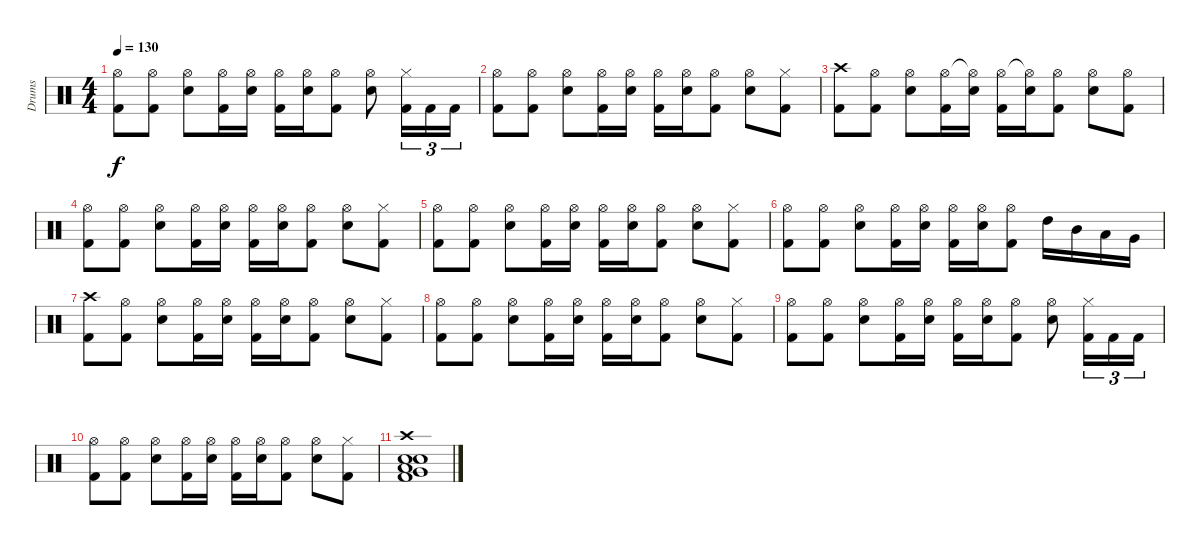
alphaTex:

\track ("Drums" "Drums") {instrument percussion}
\staff {score}
\articulation defaults
\ts (4 4)
\tempo 130
\clef neutral
\ks c
("Hi-Hat (open)" "Kick (hit) 2").8{dy f} ("Hi-Hat (open)" "Kick (hit) 2").8 ("Hi-Hat (open)" "Electric Snare (hit)").8 ("Hi-Hat (open)" "Kick (hit) 2").16 ("Hi-Hat (open)" "Electric Snare (hit)").16 ("Hi-Hat (open)" "Kick (hit) 2").16 ("Hi-Hat (open)" "Electric Snare (hit)").16 ("Hi-Hat (open)" "Kick (hit) 2").8 ("Hi-Hat (open)" "Electric Snare (hit)").8 ("Hi-Hat (closed)" "Kick (hit) 2").16{tu (3 2)} "Kick (hit) 2".16{tu (3 2)} "Kick (hit) 2".16{tu (3 2)} |
("Hi-Hat (open)" "Kick (hit) 2").8 ("Hi-Hat (open)" "Kick (hit) 2").8 ("Hi-Hat (open)" "Electric Snare (hit)").8 ("Hi-Hat (open)" "Kick (hit) 2").16 ("Hi-Hat (open)" "Electric Snare (hit)").16 ("Hi-Hat (open)" "Kick (hit) 2").16 ("Hi-Hat (open)" "Electric Snare (hit)").16 ("Hi-Hat (open)" "Kick (hit) 2").8 ("Hi-Hat (open)" "Electric Snare (hit)").8 ("Hi-Hat (closed)" "Kick (hit) 2").8 |
("Crash high (hit)" "Kick (hit) 2").8 ("Hi-Hat (open)" "Kick (hit) 2").8 ("Hi-Hat (open)" "Electric Snare (hit)").8 ("Hi-Hat (open)" "Kick (hit) 2").16 ("Hi-Hat (open)"{t} "Electric Snare (hit)").16 ("Hi-Hat (open)" "Kick (hit) 2").16 ("Hi-Hat (open)"{t} "Electric Snare (hit)").16 ("Hi-Hat (open)" "Kick (hit) 2").8 ("Hi-Hat (open)" "Electric Snare (hit)").8 ("Hi-Hat (open)" "Kick (hit) 2").8 |
("Hi-Hat (open)" "Kick (hit) 2").8 ("Hi-Hat (open)" "Kick (hit) 2").8 ("Hi-Hat (open)" "Electric Snare (hit)").8 ("Hi-Hat (open)" "Kick (hit) 2").16 ("Hi-Hat (open)" "Electric Snare (hit)").16 ("Hi-Hat (open)" "Kick (hit) 2").16 ("Hi-Hat (open)" "Electric Snare (hit)").16 ("Hi-Hat (open)" "Kick (hit) 2").8 ("Hi-Hat (open)" "Electric Snare (hit)").8 ("Hi-Hat (closed)" "Kick (hit) 2").8 |
("Hi-Hat (open)" "Kick (hit) 2").8 ("Hi-Hat (open)" "Kick (hit) 2").8 ("Hi-Hat (open)" "Electric Snare (hit)").8 ("Hi-Hat (open)" "Kick (hit) 2").16 ("Hi-Hat (open)" "Electric Snare (hit)").16 ("Hi-Hat (open)" "Kick (hit) 2").16 ("Hi-Hat (open)" "Electric Snare (hit)").16 ("Hi-Hat (open)" "Kick (hit) 2").8 ("Hi-Hat (open)" "Electric Snare (hit)").8 ("Hi-Hat (closed)" "Kick (hit) 2").8 |
("Hi-Hat (open)" "Kick (hit) 2").8 ("Hi-Hat (open)" "Kick (hit) 2").8 ("Hi-Hat (open)" "Electric Snare (hit)").8 ("Hi-Hat (open)" "Kick (hit) 2").16 ("Hi-Hat (open)" "Electric Snare (hit)").16 ("Hi-Hat (open)" "Kick (hit) 2").16 ("Hi-Hat (open)" "Electric Snare (hit)").16 ("Hi-Hat (open)" "Kick (hit) 2").8 "High Tom (hit)".16 "Mid Tom (hit)".16 "Low Tom (hit)".16 "Very Low Tom (hit)".16 |
("Crash high (hit)" "Kick (hit) 2").8 ("Hi-Hat (open)" "Kick (hit) 2").8 ("Hi-Hat (open)" "Electric Snare (hit)").8 ("Hi-Hat (open)" "Kick (hit) 2").16 ("Hi-Hat (open)" "Electric Snare (hit)").16 ("Hi-Hat (open)" "Kick (hit) 2").16 ("Hi-Hat (open)" "Electric Snare (hit)").16 ("Hi-Hat (open)" "Kick (hit) 2").8 ("Hi-Hat (open)" "Electric Snare (hit)").8 ("Hi-Hat (closed)" "Kick (hit) 2").8 |
("Hi-Hat (open)" "Kick (hit) 2").8 ("Hi-Hat (open)" "Kick (hit) 2").8 ("Hi-Hat (open)" "Electric Snare (hit)").8 ("Hi-Hat (open)" "Kick (hit) 2").16 ("Hi-Hat (open)" "Electric Snare (hit)").16 ("Hi-Hat (open)" "Kick (hit) 2").16 ("Hi-Hat (open)" "Electric Snare (hit)").16 ("Hi-Hat (open)" "Kick (hit) 2").8 ("Hi-Hat (open)" "Electric Snare (hit)").8 ("Hi-Hat (closed)" "Kick (hit) 2").8 |
("Hi-Hat (open)" "Kick (hit) 2").8 ("Hi-Hat (open)" "Kick (hit) 2").8 ("Hi-Hat (open)" "Electric Snare (hit)").8 ("Hi-Hat (open)" "Kick (hit) 2").16 ("Hi-Hat (open)" "Electric Snare (hit)").16 ("Hi-Hat (open)" "Kick (hit) 2").16 ("Hi-Hat (open)" "Electric Snare (hit)").16 ("Hi-Hat (open)" "Kick (hit) 2").8 ("Hi-Hat (open)" "Electric Snare (hit)").8 ("Hi-Hat (closed)" "Kick (hit) 2").16{tu (3 2)} "Kick (hit) 2".16{tu (3 2)} "Kick (hit) 2".16{tu (3 2)} |
("Hi-Hat (open)" "Kick (hit) 2").8 ("Hi-Hat (open)" "Kick (hit) 2").8 ("Hi-Hat (open)" "Electric Snare (hit)").8 ("Hi-Hat (open)" "Kick (hit) 2").16 ("Hi-Hat (open)" "Electric Snare (hit)").16 ("Hi-Hat (open)" "Kick (hit) 2").16 ("Hi-Hat (open)" "Electric Snare (hit)").16 ("Hi-Hat (open)" "Kick (hit) 2").8 ("Hi-Hat (open)" "Electric Snare (hit)").8 ("Hi-Hat (closed)" "Kick (hit) 2").8 |
("Crash high (hit)" "Very Low Tom (hit)" "Low Floor Tom (hit)" "Electric Snare (hit)" "Kick (hit) 2" "Electric Snare (hit)").1
